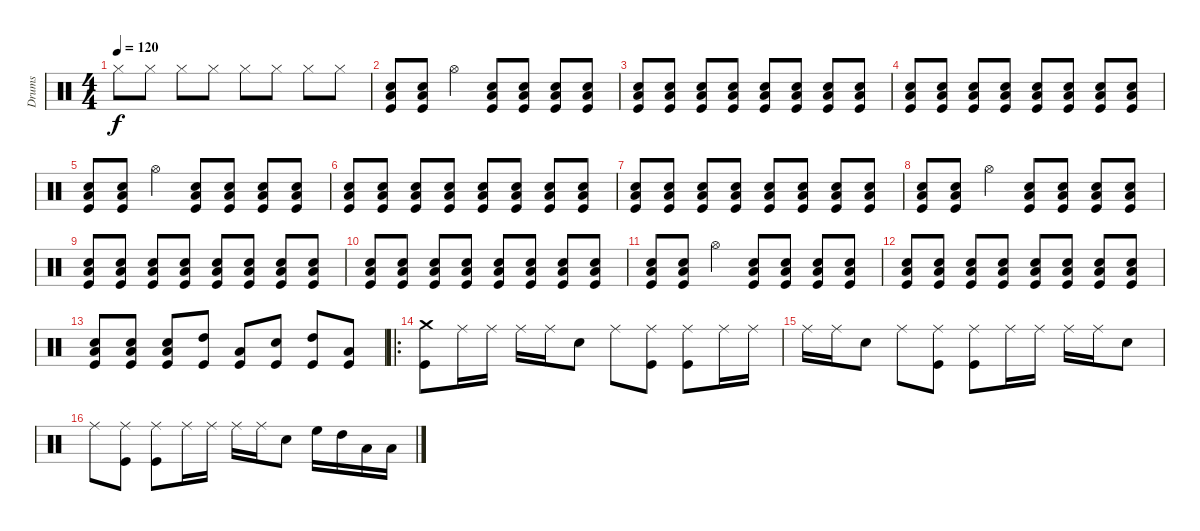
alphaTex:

\track ("Drums" "Drums") {instrument percussion}
\staff {score}
\articulation defaults
\ts (4 4)
\tempo 120
\clef neutral
\ks c "Hi-Hat (closed)".8{dy f} "Hi-Hat (closed)".8 "Hi-Hat (closed)".8 "Hi-Hat (closed)".8 "Hi-Hat (closed)".8 "Hi-Hat (closed)".8 "Hi-Hat (closed)".8 "Hi-Hat (closed)".8
|
("Electric Snare (hit)" "Low Floor Tom (hit)" "Kick (hit)").8{volume 2} ("Electric Snare (hit)" "Low Floor Tom (hit)" "Kick (hit)").8 "Hi-Hat (open)".4 ("Electric Snare (hit)" "Low Floor Tom (hit)" "Kick (hit)").8 ("Electric Snare (hit)" "Low Floor Tom (hit)" "Kick (hit)").8 ("Electric Snare (hit)" "Low Floor Tom (hit)" "Kick (hit)").8 ("Electric Snare (hit)" "Low Floor Tom (hit)" "Kick (hit)").8 |
("Electric Snare (hit)" "Low Floor Tom (hit)" "Kick (hit)").8{volume 4} ("Electric Snare (hit)" "Low Floor Tom (hit)" "Kick (hit)").8 ("Electric Snare (hit)" "Low Floor Tom (hit)" "Kick (hit)").8 ("Electric Snare (hit)" "Low Floor Tom (hit)" "Kick (hit)").8 ("Electric Snare (hit)" "Low Floor Tom (hit)" "Kick (hit)").8 ("Electric Snare (hit)" "Low Floor Tom (hit)" "Kick (hit)").8 ("Electric Snare (hit)" "Low Floor Tom (hit)" "Kick (hit)").8 ("Electric Snare (hit)" "Low Floor Tom (hit)" "Kick (hit)").8 |
("Electric Snare (hit)" "Low Floor Tom (hit)" "Kick (hit)").8{volume 6} ("Electric Snare (hit)" "Low Floor Tom (hit)" "Kick (hit)").8 ("Electric Snare (hit)" "Low Floor Tom (hit)" "Kick (hit)").8 ("Electric Snare (hit)" "Low Floor Tom (hit)" "Kick (hit)").8 ("Electric Snare (hit)" "Low Floor Tom (hit)" "Kick (hit)").8 ("Electric Snare (hit)" "Low Floor Tom (hit)" "Kick (hit)").8 ("Electric Snare (hit)" "Low Floor Tom (hit)" "Kick (hit)").8 ("Electric Snare (hit)" "Low Floor Tom (hit)" "Kick (hit)").8 |
("Electric Snare (hit)" "Low Floor Tom (hit)" "Kick (hit)").8{volume 8} ("Electric Snare (hit)" "Low Floor Tom (hit)" "Kick (hit)").8 "Hi-Hat (open)".4 ("Electric Snare (hit)" "Low Floor Tom (hit)" "Kick (hit)").8 ("Electric Snare (hit)" "Low Floor Tom (hit)" "Kick (hit)").8 ("Electric Snare (hit)" "Low Floor Tom (hit)" "Kick (hit)").8 ("Electric Snare (hit)" "Low Floor Tom (hit)" "Kick (hit)").8 |
("Electric Snare (hit)" "Low Floor Tom (hit)" "Kick (hit)").8{volume 10} ("Electric Snare (hit)" "Low Floor Tom (hit)" "Kick (hit)").8 ("Electric Snare (hit)" "Low Floor Tom (hit)" "Kick (hit)").8 ("Electric Snare (hit)" "Low Floor Tom (hit)" "Kick (hit)").8 ("Electric Snare (hit)" "Low Floor Tom (hit)" "Kick (hit)").8 ("Electric Snare (hit)" "Low Floor Tom (hit)" "Kick (hit)").8 ("Electric Snare (hit)" "Low Floor Tom (hit)" "Kick (hit)").8 ("Electric Snare (hit)" "Low Floor Tom (hit)" "Kick (hit)").8 |
("Electric Snare (hit)" "Low Floor Tom (hit)" "Kick (hit)").8{volume 11} ("Electric Snare (hit)" "Low Floor Tom (hit)" "Kick (hit)").8 ("Electric Snare (hit)" "Low Floor Tom (hit)" "Kick (hit)").8 ("Electric Snare (hit)" "Low Floor Tom (hit)" "Kick (hit)").8 ("Electric Snare (hit)" "Low Floor Tom (hit)" "Kick (hit)").8 ("Electric Snare (hit)" "Low Floor Tom (hit)" "Kick (hit)").8 ("Electric Snare (hit)" "Low Floor Tom (hit)" "Kick (hit)").8 ("Electric Snare (hit)" "Low Floor Tom (hit)" "Kick (hit)").8 |
("Electric Snare (hit)" "Low Floor Tom (hit)" "Kick (hit)").8{volume 12} ("Electric Snare (hit)" "Low Floor Tom (hit)" "Kick (hit)").8 "Hi-Hat (open)".4 ("Electric Snare (hit)" "Low Floor Tom (hit)" "Kick (hit)").8 ("Electric Snare (hit)" "Low Floor Tom (hit)" "Kick (hit)").8 ("Electric Snare (hit)" "Low Floor Tom (hit)" "Kick (hit)").8 ("Electric Snare (hit)" "Low Floor Tom (hit)" "Kick (hit)").8 |
("Electric Snare (hit)" "Low Floor Tom (hit)" "Kick (hit)").8{volume 12} ("Electric Snare (hit)" "Low Floor Tom (hit)" "Kick (hit)").8 ("Electric Snare (hit)" "Low Floor Tom (hit)" "Kick (hit)").8 ("Electric Snare (hit)" "Low Floor Tom (hit)" "Kick (hit)").8 ("Electric Snare (hit)" "Low Floor Tom (hit)" "Kick (hit)").8 ("Electric Snare (hit)" "Low Floor Tom (hit)" "Kick (hit)").8 ("Electric Snare (hit)" "Low Floor Tom (hit)" "Kick (hit)").8 ("Electric Snare (hit)" "Low Floor Tom (hit)" "Kick (hit)").8 |
("Electric Snare (hit)" "Low Floor Tom (hit)" "Kick (hit)").8{volume 13} ("Electric Snare (hit)" "Low Floor Tom (hit)" "Kick (hit)").8 ("Electric Snare (hit)" "Low Floor Tom (hit)" "Kick (hit)").8 ("Electric Snare (hit)" "Low Floor Tom (hit)" "Kick (hit)").8 ("Electric Snare (hit)" "Low Floor Tom (hit)" "Kick (hit)").8 ("Electric Snare (hit)" "Low Floor Tom (hit)" "Kick (hit)").8 ("Electric Snare (hit)" "Low Floor Tom (hit)" "Kick (hit)").8 ("Electric Snare (hit)" "Low Floor Tom (hit)" "Kick (hit)").8 |
("Electric Snare (hit)" "Low Floor Tom (hit)" "Kick (hit)").8 ("Electric Snare (hit)" "Low Floor Tom (hit)" "Kick (hit)").8 "Hi-Hat (open)".4 ("Electric Snare (hit)" "Low Floor Tom (hit)" "Kick (hit)").8 ("Electric Snare (hit)" "Low Floor Tom (hit)" "Kick (hit)").8 ("Electric Snare (hit)" "Low Floor Tom (hit)" "Kick (hit)").8 ("Electric Snare (hit)" "Low Floor Tom (hit)" "Kick (hit)").8 |
("Electric Snare (hit)" "Low Floor Tom (hit)" "Kick (hit)").8 ("Electric Snare (hit)" "Low Floor Tom (hit)" "Kick (hit)").8 ("Electric Snare (hit)" "Low Floor Tom (hit)" "Kick (hit)").8 ("Electric Snare (hit)" "Low Floor Tom (hit)" "Kick (hit)").8 ("Electric Snare (hit)" "Low Floor Tom (hit)" "Kick (hit)").8 ("Electric Snare (hit)" "Low Floor Tom (hit)" "Kick (hit)").8 ("Electric Snare (hit)" "Low Floor Tom (hit)" "Kick (hit)").8 ("Electric Snare (hit)" "Low Floor Tom (hit)" "Kick (hit)").8 |
("Electric Snare (hit)" "Low Floor Tom (hit)" "Kick (hit)").8 ("Electric Snare (hit)" "Low Floor Tom (hit)" "Kick (hit)").8 ("Electric Snare (hit)" "Low Floor Tom (hit)" "Kick (hit)").8 ("High Tom (hit)" "Kick (hit)").8 ("Low Tom (hit)" "Kick (hit)").8 ("Electric Snare (hit)" "Kick (hit)").8 ("High Tom (hit)" "Kick (hit)").8 ("Low Tom (hit)" "Kick (hit)").8 |
\ro
("Crash medium (hit)" "Kick (hit)").8 "Ride (middle)".16 "Ride (middle)".16 "Ride (middle)".16 "Ride (middle)".16 "Electric Snare (hit)".8 "Ride (middle)".8 ("Ride (middle)" "Kick (hit)").8 ("Ride (middle)" "Kick (hit)").8 "Ride (middle)".16 "Ride (middle)".16 |
"Ride (middle)".16 "Ride (middle)".16 "Electric Snare (hit)".8 "Ride (middle)".8 ("Ride (middle)" "Kick (hit)").8 ("Ride (middle)" "Kick (hit)").8 "Ride (middle)".16 "Ride (middle)".16 "Ride (middle)".16 "Ride (middle)".16 "Electric Snare (hit)".8 |
"Ride (middle)".8 ("Ride (middle)" "Kick (hit)").8 ("Ride (middle)" "Kick (hit)").8 "Ride (middle)".16 "Ride (middle)".16 "Ride (middle)".16 "Ride (middle)".16 "Electric Snare (hit)".8 "High Floor Tom (hit)".16 "High Tom (hit)".16 "Low Tom (hit)".16 "Low Floor Tom (hit)".16
